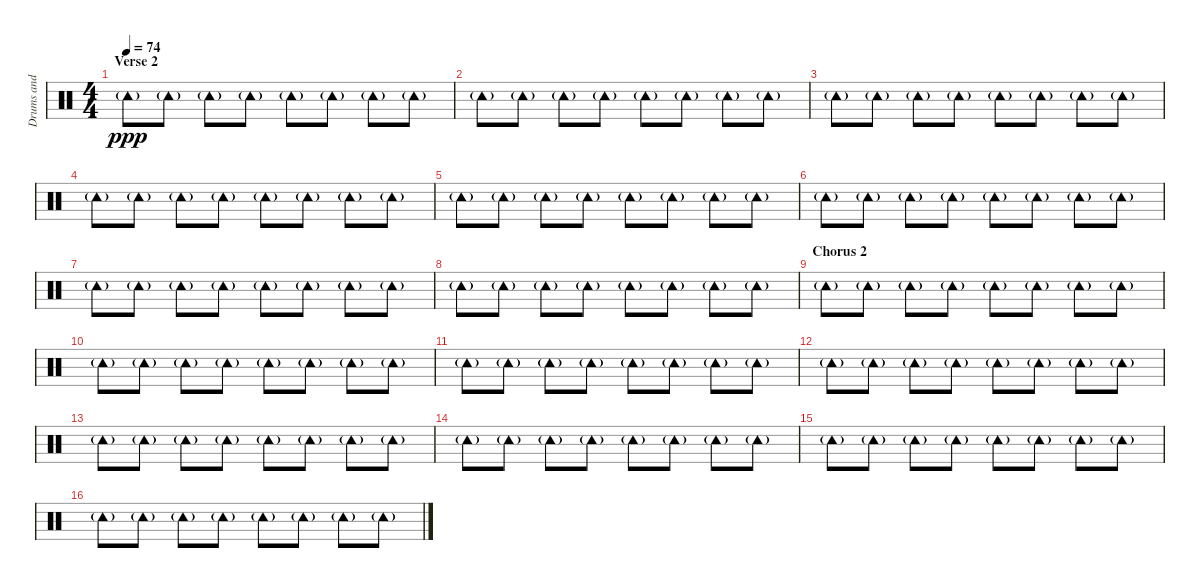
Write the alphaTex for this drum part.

\track ("Drums and Percussion" "Drums and ") {instrument percussion}
\staff {score}
\articulation defaults
\ts (4 4)
\section ("" "Verse 2")
\tempo 74
\clef neutral
\ks c "Tambourine (hit)"{g}.8{dy ppp} "Tambourine (hit)"{g}.8 "Tambourine (hit)"{g}.8 "Tambourine (hit)"{g}.8 "Tambourine (hit)"{g}.8 "Tambourine (hit)"{g}.8 "Tambourine (hit)"{g}.8 "Tambourine (hit)"{g}.8
|
"Tambourine (hit)"{g}.8 "Tambourine (hit)"{g}.8 "Tambourine (hit)"{g}.8 "Tambourine (hit)"{g}.8 "Tambourine (hit)"{g}.8 "Tambourine (hit)"{g}.8 "Tambourine (hit)"{g}.8 "Tambourine (hit)"{g}.8 |
"Tambourine (hit)"{g}.8 "Tambourine (hit)"{g}.8 "Tambourine (hit)"{g}.8 "Tambourine (hit)"{g}.8 "Tambourine (hit)"{g}.8 "Tambourine (hit)"{g}.8 "Tambourine (hit)"{g}.8 "Tambourine (hit)"{g}.8 |
"Tambourine (hit)"{g}.8 "Tambourine (hit)"{g}.8 "Tambourine (hit)"{g}.8 "Tambourine (hit)"{g}.8 "Tambourine (hit)"{g}.8 "Tambourine (hit)"{g}.8 "Tambourine (hit)"{g}.8 "Tambourine (hit)"{g}.8 |
"Tambourine (hit)"{g}.8 "Tambourine (hit)"{g}.8 "Tambourine (hit)"{g}.8 "Tambourine (hit)"{g}.8 "Tambourine (hit)"{g}.8 "Tambourine (hit)"{g}.8 "Tambourine (hit)"{g}.8 "Tambourine (hit)"{g}.8 |
"Tambourine (hit)"{g}.8 "Tambourine (hit)"{g}.8 "Tambourine (hit)"{g}.8 "Tambourine (hit)"{g}.8 "Tambourine (hit)"{g}.8 "Tambourine (hit)"{g}.8 "Tambourine (hit)"{g}.8 "Tambourine (hit)"{g}.8 |
"Tambourine (hit)"{g}.8 "Tambourine (hit)"{g}.8 "Tambourine (hit)"{g}.8 "Tambourine (hit)"{g}.8 "Tambourine (hit)"{g}.8 "Tambourine (hit)"{g}.8 "Tambourine (hit)"{g}.8 "Tambourine (hit)"{g}.8 |
"Tambourine (hit)"{g}.8 "Tambourine (hit)"{g}.8 "Tambourine (hit)"{g}.8 "Tambourine (hit)"{g}.8 "Tambourine (hit)"{g}.8 "Tambourine (hit)"{g}.8 "Tambourine (hit)"{g}.8 "Tambourine (hit)"{g}.8 |
\section ("" "Chorus 2")
"Tambourine (hit)"{g}.8 "Tambourine (hit)"{g}.8 "Tambourine (hit)"{g}.8 "Tambourine (hit)"{g}.8 "Tambourine (hit)"{g}.8 "Tambourine (hit)"{g}.8 "Tambourine (hit)"{g}.8 "Tambourine (hit)"{g}.8 |
"Tambourine (hit)"{g}.8 "Tambourine (hit)"{g}.8 "Tambourine (hit)"{g}.8 "Tambourine (hit)"{g}.8 "Tambourine (hit)"{g}.8 "Tambourine (hit)"{g}.8 "Tambourine (hit)"{g}.8 "Tambourine (hit)"{g}.8 |
"Tambourine (hit)"{g}.8 "Tambourine (hit)"{g}.8 "Tambourine (hit)"{g}.8 "Tambourine (hit)"{g}.8 "Tambourine (hit)"{g}.8 "Tambourine (hit)"{g}.8 "Tambourine (hit)"{g}.8 "Tambourine (hit)"{g}.8 |
"Tambourine (hit)"{g}.8 "Tambourine (hit)"{g}.8 "Tambourine (hit)"{g}.8 "Tambourine (hit)"{g}.8 "Tambourine (hit)"{g}.8 "Tambourine (hit)"{g}.8 "Tambourine (hit)"{g}.8 "Tambourine (hit)"{g}.8 |
"Tambourine (hit)"{g}.8 "Tambourine (hit)"{g}.8 "Tambourine (hit)"{g}.8 "Tambourine (hit)"{g}.8 "Tambourine (hit)"{g}.8 "Tambourine (hit)"{g}.8 "Tambourine (hit)"{g}.8 "Tambourine (hit)"{g}.8 |
"Tambourine (hit)"{g}.8 "Tambourine (hit)"{g}.8 "Tambourine (hit)"{g}.8 "Tambourine (hit)"{g}.8 "Tambourine (hit)"{g}.8 "Tambourine (hit)"{g}.8 "Tambourine (hit)"{g}.8 "Tambourine (hit)"{g}.8 |
"Tambourine (hit)"{g}.8 "Tambourine (hit)"{g}.8 "Tambourine (hit)"{g}.8 "Tambourine (hit)"{g}.8 "Tambourine (hit)"{g}.8 "Tambourine (hit)"{g}.8 "Tambourine (hit)"{g}.8 "Tambourine (hit)"{g}.8 |
"Tambourine (hit)"{g}.8 "Tambourine (hit)"{g}.8 "Tambourine (hit)"{g}.8 "Tambourine (hit)"{g}.8 "Tambourine (hit)"{g}.8 "Tambourine (hit)"{g}.8 "Tambourine (hit)"{g}.8 "Tambourine (hit)"{g}.8
